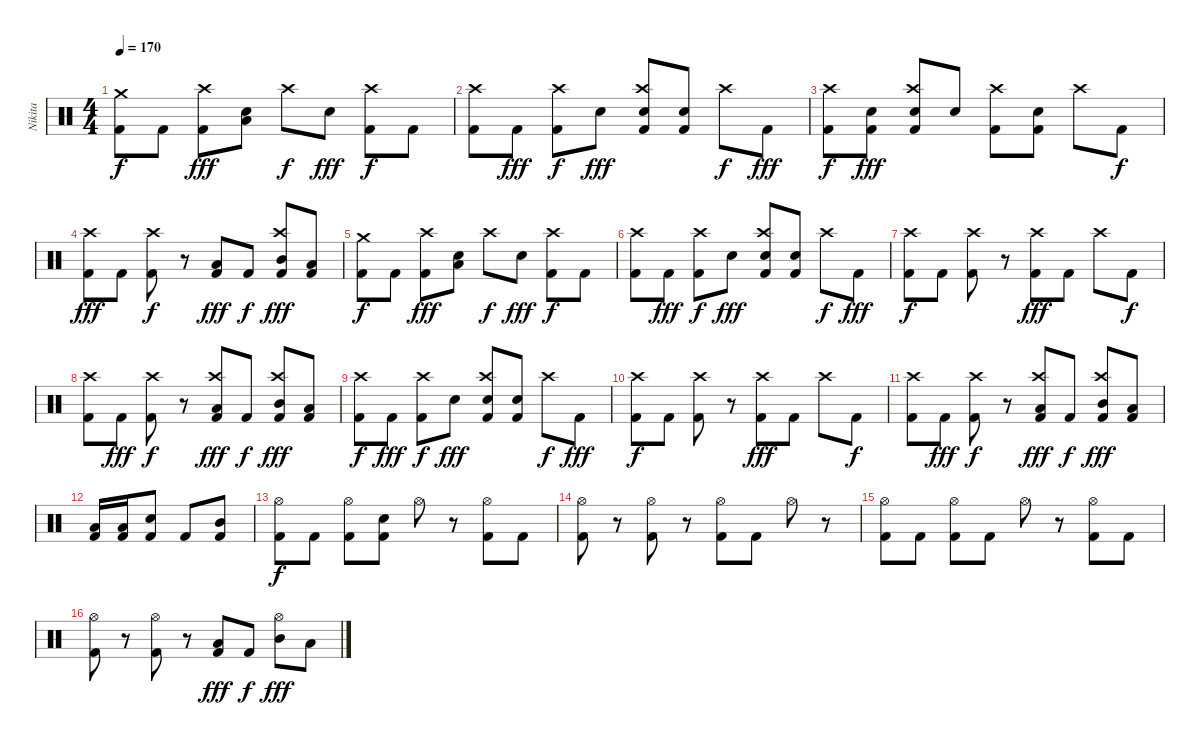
\track ("Nikita" "Nikita") {instrument percussion}
\staff {score}
\articulation defaults
\ts (4 4)
\tempo 170
\clef neutral
\ks c
("Crash medium (hit)" "Kick (hit) 2").8{dy f} "Kick (hit) 2".8 ("Crash high (hit)" "Kick (hit) 2").8{dy fff} ("Low Tom (hit)" "Electric Snare (hit)").8 "Crash high (hit)".8{dy f} "Electric Snare (hit)".8{dy fff} ("Crash high (hit)" "Kick (hit) 2").8{dy f} "Kick (hit) 2".8 |
("Crash high (hit)" "Kick (hit) 2").8 "Kick (hit) 2".8{dy fff} ("Crash high (hit)" "Kick (hit) 2").8{dy f} "Electric Snare (hit)".8{dy fff} ("Crash high (hit)" "Electric Snare (hit)" "Kick (hit) 2").8 ("Electric Snare (hit)" "Kick (hit) 2").8 "Crash high (hit)".8{dy f} "Kick (hit) 2".8{dy fff} |
("Crash high (hit)" "Kick (hit) 2").8{dy f} ("Electric Snare (hit)" "Kick (hit) 2").8{dy fff} ("Crash high (hit)" "Electric Snare (hit)" "Kick (hit) 2").8 "Electric Snare (hit)".8 ("Crash high (hit)" "Kick (hit) 2").8 ("Electric Snare (hit)" "Kick (hit) 2").8 "Crash high (hit)".8 "Kick (hit) 2".8{dy f} |
("Crash high (hit)" "Kick (hit) 2").8{dy fff} "Kick (hit) 2".8 ("Crash high (hit)" "Kick (hit) 2").8{dy f} r.8 ("Low Tom (hit)" "Kick (hit) 2").8{dy fff} "Kick (hit) 2".8{dy f} ("Crash high (hit)" "Mid Tom (hit)" "Kick (hit) 2").8{dy fff} ("Low Tom (hit)" "Kick (hit) 2").8 |
("Crash medium (hit)" "Kick (hit) 2").8{dy f} "Kick (hit) 2".8 ("Crash high (hit)" "Kick (hit) 2").8{dy fff} ("Low Tom (hit)" "Electric Snare (hit)").8 "Crash high (hit)".8{dy f} "Electric Snare (hit)".8{dy fff} ("Crash high (hit)" "Kick (hit) 2").8{dy f} "Kick (hit) 2".8 |
("Crash high (hit)" "Kick (hit) 2").8 "Kick (hit) 2".8{dy fff} ("Crash high (hit)" "Kick (hit) 2").8{dy f} "Electric Snare (hit)".8{dy fff} ("Crash high (hit)" "Electric Snare (hit)" "Kick (hit) 2").8 ("Electric Snare (hit)" "Kick (hit) 2").8 "Crash high (hit)".8{dy f} "Kick (hit) 2".8{dy fff} |
("Crash high (hit)" "Kick (hit) 2").8{dy f} "Kick (hit) 2".8 ("Crash high (hit)" "Kick (hit) 2").8 r.8 ("Crash high (hit)" "Kick (hit) 2").8{dy fff} "Kick (hit) 2".8 "Crash high (hit)".8 "Kick (hit) 2".8{dy f} |
("Crash high (hit)" "Kick (hit) 2").8 "Kick (hit) 2".8{dy fff} ("Crash high (hit)" "Kick (hit) 2").8{dy f} r.8 ("Crash high (hit)" "Low Tom (hit)" "Kick (hit) 2").8{dy fff} "Kick (hit) 2".8{dy f} ("Crash high (hit)" "Mid Tom (hit)" "Kick (hit) 2").8{dy fff} ("Low Tom (hit)" "Kick (hit) 2").8 |
("Crash high (hit)" "Kick (hit) 2").8{dy f} "Kick (hit) 2".8{dy fff} ("Crash high (hit)" "Kick (hit) 2").8{dy f} "Electric Snare (hit)".8{dy fff} ("Crash high (hit)" "Electric Snare (hit)" "Kick (hit) 2").8 ("Electric Snare (hit)" "Kick (hit) 2").8 "Crash high (hit)".8{dy f} "Kick (hit) 2".8{dy fff} |
("Crash high (hit)" "Kick (hit) 2").8{dy f} "Kick (hit) 2".8 ("Crash high (hit)" "Kick (hit) 2").8 r.8 ("Crash high (hit)" "Kick (hit) 2").8{dy fff} "Kick (hit) 2".8 "Crash high (hit)".8 "Kick (hit) 2".8{dy f} |
("Crash high (hit)" "Kick (hit) 2").8 "Kick (hit) 2".8{dy fff} ("Crash high (hit)" "Kick (hit) 2").8{dy f} r.8 ("Crash high (hit)" "Low Tom (hit)" "Kick (hit) 2").8{dy fff} "Kick (hit) 2".8{dy f} ("Crash high (hit)" "Mid Tom (hit)" "Kick (hit) 2").8{dy fff} ("Low Tom (hit)" "Kick (hit) 2").8 |
("Low Tom (hit)" "Kick (hit) 2").16 ("Low Tom (hit)" "Kick (hit) 2").16 ("Electric Snare (hit)" "Kick (hit) 2").8 "Kick (hit) 2".8 ("Mid Tom (hit)" "Kick (hit) 2").8 |
("Hi-Hat (open)" "Kick (hit) 2").8{dy f} "Kick (hit) 2".8 ("Hi-Hat (open)" "Kick (hit) 2").8 ("Electric Snare (hit)" "Kick (hit) 2").8 "Hi-Hat (open)".8 r.8 ("Hi-Hat (open)" "Kick (hit) 2").8 "Kick (hit) 2".8 |
("Hi-Hat (open)" "Kick (hit) 2").8 r.8 ("Hi-Hat (open)" "Kick (hit) 2").8 r.8 ("Hi-Hat (open)" "Kick (hit) 2").8 "Kick (hit) 2".8 "Hi-Hat (open)".8 r.8 |
("Hi-Hat (open)" "Kick (hit) 2").8 "Kick (hit) 2".8 ("Hi-Hat (open)" "Kick (hit) 2").8 "Kick (hit) 2".8 "Hi-Hat (open)".8 r.8 ("Hi-Hat (open)" "Kick (hit) 2").8 "Kick (hit) 2".8 |
("Hi-Hat (open)" "Kick (hit) 2").8 r.8 ("Hi-Hat (open)" "Kick (hit) 2").8 r.8 ("Low Tom (hit)" "Kick (hit) 2").8{dy fff} "Kick (hit) 2".8{dy f} ("Hi-Hat (open)" "Mid Tom (hit)").8{dy fff} "Low Tom (hit)".8
